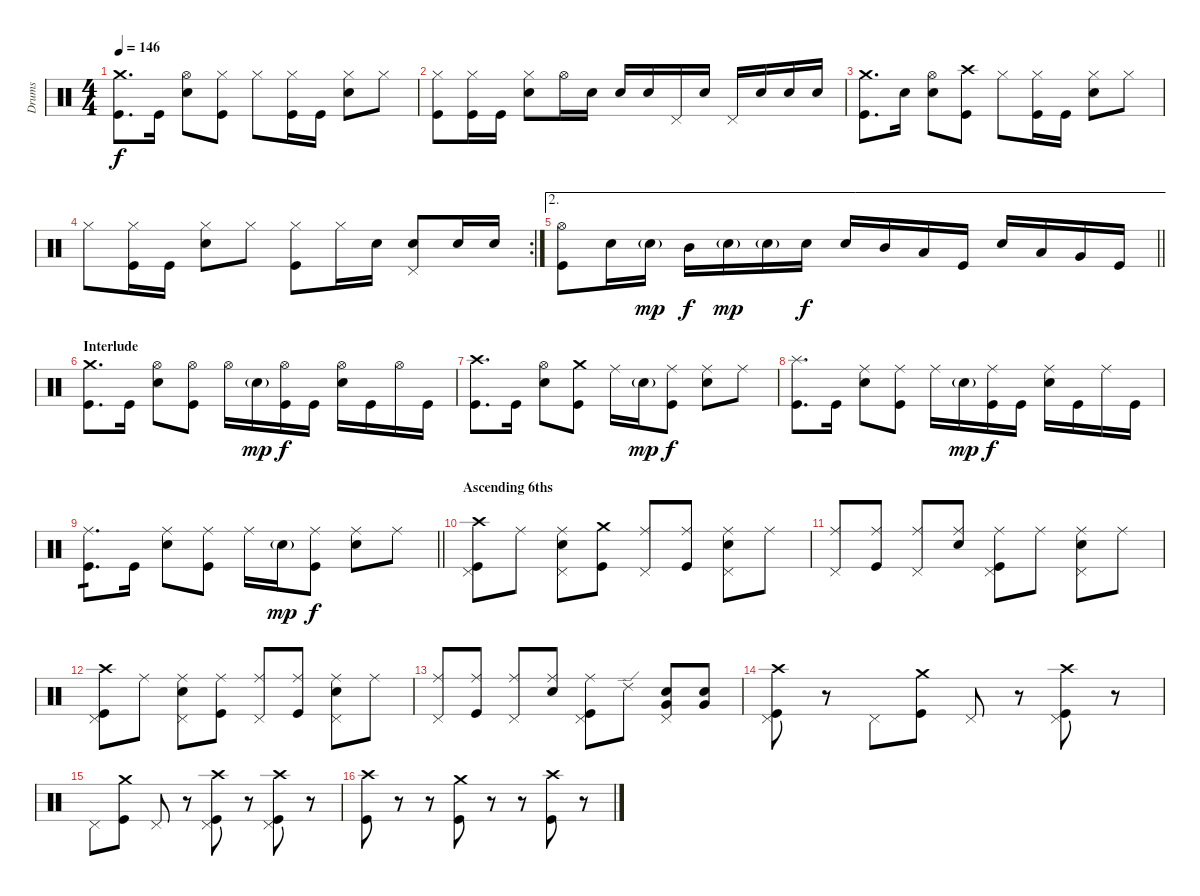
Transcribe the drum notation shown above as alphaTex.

\track ("Drums" "Drums") {instrument percussion}
\staff {score}
\articulation defaults
\ts (4 4)
\tempo 146
\clef neutral
\ks c
("Crash medium (hit)" "Kick (hit)").8{d dy f} "Kick (hit)".16 ("Hi-Hat (open)" "Electric Snare (hit)").8 ("Hi-Hat (closed)" "Kick (hit)").8 "Hi-Hat (closed)".8 ("Hi-Hat (closed)" "Kick (hit)").16 "Kick (hit)".16 ("Hi-Hat (closed)" "Electric Snare (hit)").8 "Hi-Hat (closed)".8 |
("Hi-Hat (closed)" "Kick (hit)").8 ("Hi-Hat (closed)" "Kick (hit)").16 "Kick (hit)".16 ("Hi-Hat (closed)" "Electric Snare (hit)").8 "Hi-Hat (open)".16 "Electric Snare (hit)".16 "Electric Snare (hit)".16 "Electric Snare (hit)".16 "Pedal Hi-Hat (hit)".16 "Electric Snare (hit)".16 "Pedal Hi-Hat (hit)".16 "Electric Snare (hit)".16 "Electric Snare (hit)".16 "Electric Snare (hit)".16 |
("Crash medium (hit)" "Kick (hit)").8{d} "Electric Snare (hit)".16 ("Hi-Hat (open)" "Electric Snare (hit)").8 ("Crash high (hit)" "Kick (hit)").8 "Hi-Hat (closed)".8 ("Hi-Hat (closed)" "Kick (hit)").16 "Kick (hit)".16 ("Hi-Hat (closed)" "Electric Snare (hit)").8 "Hi-Hat (closed)".8 |
\rc 2 "Hi-Hat (closed)".8
("Hi-Hat (closed)" "Kick (hit)").16 "Kick (hit)".16 ("Hi-Hat (closed)" "Electric Snare (hit)").8 "Hi-Hat (closed)".8 ("Hi-Hat (closed)" "Kick (hit)").8 "Hi-Hat (closed)".16 "Electric Snare (hit)".16 ("Pedal Hi-Hat (hit)" "Electric Snare (hit)").8 "Electric Snare (hit)".16 "Electric Snare (hit)".16 |
\ae 2
\barLineRight lightlight
("Hi-Hat (open)" "Kick (hit)").8 "Electric Snare (hit)".16 "Electric Snare (hit)"{g}.16{dy mp} "Mid Tom (hit)".16{dy f} "Electric Snare (hit)"{g}.16{dy mp} "Electric Snare (hit)"{g}.16 "Electric Snare (hit)".16{dy f} "Electric Snare (hit)".16 "Mid Tom (hit)".16 "Low Tom (hit)".16 "Kick (hit)".16 "Electric Snare (hit)".16 "Low Tom (hit)".16 "Very Low Tom (hit)".16 "Kick (hit)".16 |
\section ("" "Interlude")
("Crash medium (hit)" "Kick (hit)").8{d} "Kick (hit)".16 ("Hi-Hat (open)" "Electric Snare (hit)").8 ("Hi-Hat (open)" "Kick (hit)").8 "Hi-Hat (open)".16 "Electric Snare (hit)"{g}.16{dy mp} ("Hi-Hat (open)" "Kick (hit)").16{dy f} "Kick (hit)".16 ("Hi-Hat (open)" "Electric Snare (hit)").16 "Kick (hit)".16 "Hi-Hat (open)".16 "Kick (hit)".16 |
("Crash high (hit)" "Kick (hit)").8{d} "Kick (hit)".16 ("Hi-Hat (open)" "Electric Snare (hit)").8 ("Crash medium (hit)" "Kick (hit)").8 "Ride (middle)".16 "Electric Snare (hit)"{g}.16{dy mp} ("Ride (middle)" "Kick (hit)").8{dy f} ("Ride (middle)" "Electric Snare (hit)").8 "Ride (middle)".8 |
("Splash (hit)" "Kick (hit)").8{d} "Kick (hit)".16 ("Ride (middle)" "Electric Snare (hit)").8 ("Ride (middle)" "Kick (hit)").8 "Ride (middle)".16 "Electric Snare (hit)"{g}.16{dy mp} ("Ride (middle)" "Kick (hit)").16{dy f} "Kick (hit)".16 ("Ride (middle)" "Electric Snare (hit)").16 "Kick (hit)".16 "Ride (middle)".16 "Kick (hit)".16 |
\barLineRight lightlight
("Ride (middle)" "Kick (hit)").8{d tp 1} "Kick (hit)".16 ("Ride (middle)" "Electric Snare (hit)").8 ("Ride (middle)" "Kick (hit)").8 "Ride (middle)".16 "Electric Snare (hit)"{g}.16{dy mp} ("Ride (middle)" "Kick (hit)").8{dy f} ("Ride (middle)" "Electric Snare (hit)").8 "Ride (middle)".8 |
\section ("" "Ascending 6ths")
("Crash high (hit)" "Pedal Hi-Hat (hit)" "Kick (hit)").8 "Ride (middle)".8 ("Ride (middle)" "Pedal Hi-Hat (hit)" "Electric Snare (hit)").8 ("Crash medium (hit)" "Kick (hit)").8 ("Ride (middle)" "Pedal Hi-Hat (hit)").8 ("Ride (middle)" "Kick (hit)").8 ("Ride (middle)" "Pedal Hi-Hat (hit)" "Electric Snare (hit)").8 "Ride (middle)".8 |
("Ride (middle)" "Pedal Hi-Hat (hit)").8 ("Ride (middle)" "Kick (hit)").8 ("Ride (middle)" "Pedal Hi-Hat (hit)").8 ("Ride (middle)" "Electric Snare (hit)").8 ("Ride (middle)" "Pedal Hi-Hat (hit)" "Kick (hit)").8 "Ride (middle)".8 ("Ride (middle)" "Pedal Hi-Hat (hit)" "Electric Snare (hit)").8 "Ride (middle)".8 |
("Crash high (hit)" "Pedal Hi-Hat (hit)" "Kick (hit)").8 "Ride (middle)".8 ("Ride (middle)" "Pedal Hi-Hat (hit)" "Electric Snare (hit)").8 ("Ride (middle)" "Kick (hit)").8 ("Ride (middle)" "Pedal Hi-Hat (hit)").8 ("Ride (middle)" "Kick (hit)").8 ("Ride (middle)" "Pedal Hi-Hat (hit)" "Electric Snare (hit)").8 "Ride (middle)".8 |
("Ride (middle)" "Pedal Hi-Hat (hit)").8 ("Ride (middle)" "Kick (hit)").8 ("Ride (middle)" "Pedal Hi-Hat (hit)").8 ("Ride (middle)" "Electric Snare (hit)").8 ("Ride (middle)" "Pedal Hi-Hat (hit)" "Kick (hit)").8 "Ride (edge) 2".8 ("Electric Snare (hit)" "Very Low Tom (hit)" "Pedal Hi-Hat (hit)").8 ("Electric Snare (hit)" "Very Low Tom (hit)").8 |
("Crash high (hit)" "Pedal Hi-Hat (hit)" "Kick (hit)").8 r.8 "Pedal Hi-Hat (hit)".8 ("Crash medium (hit)" "Kick (hit)").8 "Pedal Hi-Hat (hit)".8 r.8 ("Crash high (hit)" "Pedal Hi-Hat (hit)" "Kick (hit)").8 r.8 |
"Pedal Hi-Hat (hit)".8 ("Crash medium (hit)" "Kick (hit)").8 "Pedal Hi-Hat (hit)".8 r.8 ("Crash high (hit)" "Pedal Hi-Hat (hit)" "Kick (hit)").8 r.8 ("Crash high (hit)" "Pedal Hi-Hat (hit)" "Kick (hit)").8 r.8 |
("Crash high (hit)" "Kick (hit)").8 r.8 r.8 ("Crash medium (hit)" "Kick (hit)").8 r.8 r.8 ("Crash high (hit)" "Kick (hit)").8 r.8
